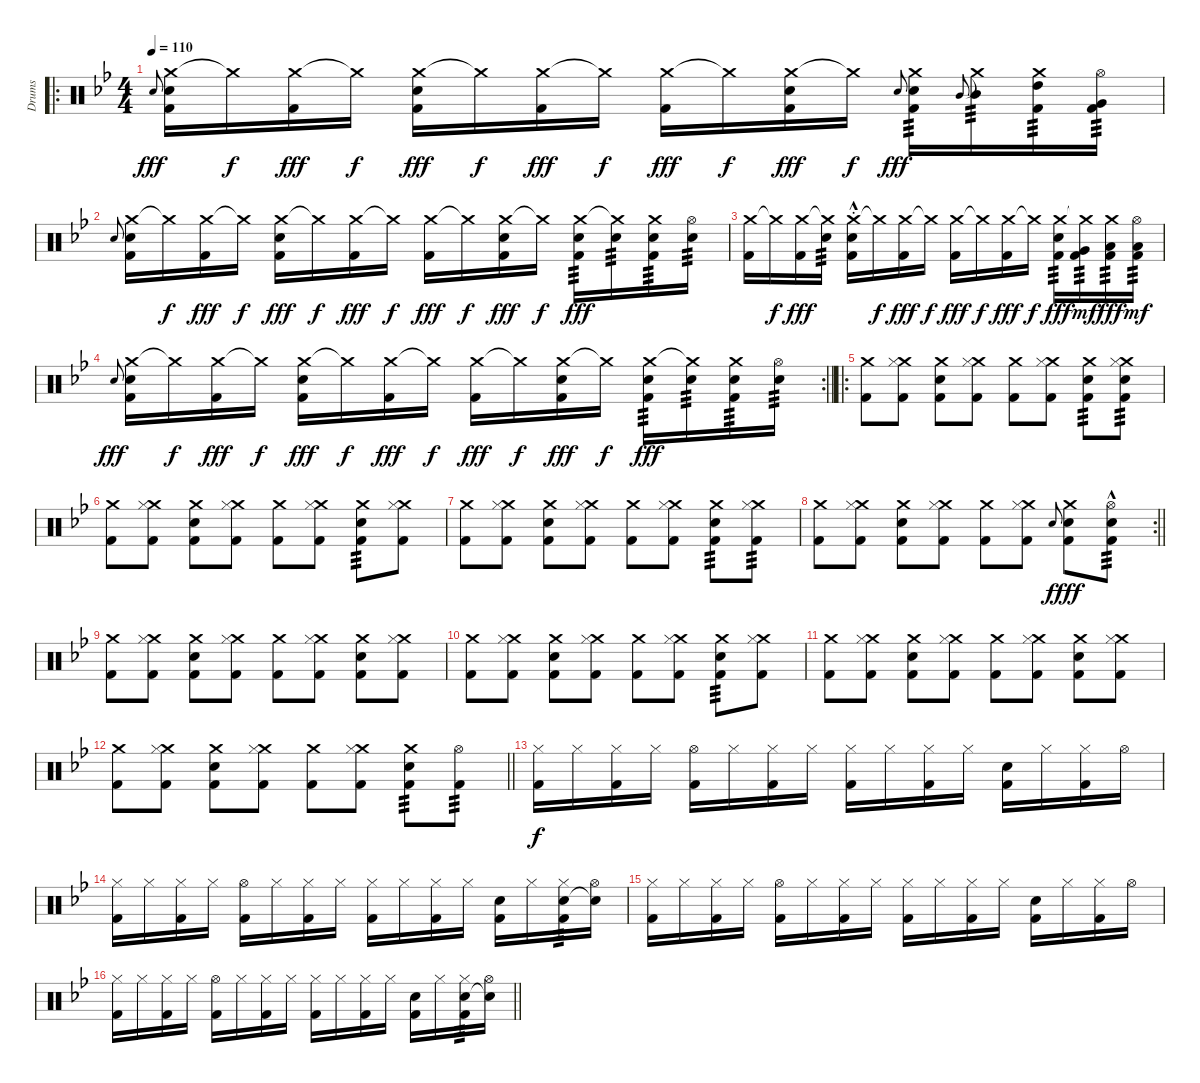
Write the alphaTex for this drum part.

\track ("Drums" "Drums") {instrument percussion}
\staff {score}
\articulation defaults
\ro
\ts (4 4)
\tempo 110
\clef neutral
\ks bb "Electric Snare (hit)"{h}.8{gr onbeat dy fff}
("Crash medium (hit)" "Electric Snare (hit)" "Kick (hit) 2").16 "Crash medium (hit)"{t}.16{dy f} ("Crash medium (hit)" "Kick (hit) 2").16{dy fff} "Crash medium (hit)"{t}.16{dy f} ("Crash medium (hit)" "Electric Snare (hit)" "Kick (hit) 2").16{dy fff} "Crash medium (hit)"{t}.16{dy f} ("Crash medium (hit)" "Kick (hit) 2").16{dy fff} "Crash medium (hit)"{t}.16{dy f} ("Crash medium (hit)" "Kick (hit) 2").16{dy fff} "Crash medium (hit)"{t}.16{dy f} ("Crash medium (hit)" "Electric Snare (hit)" "Kick (hit) 2").16{dy fff} "Crash medium (hit)"{t}.16{dy f} "Electric Snare (hit)"{h}.8{gr onbeat dy fff} ("Crash medium (hit)" "Electric Snare (hit)" "Kick (hit) 2").16{tp 3} "Mid Tom (hit)"{h}.8{gr onbeat} ("Crash medium (hit)"{t} "Mid Tom (hit)").16{tp 3} ("Crash medium (hit)" "High Tom (hit)" "Kick (hit) 2").16{tp 3} ("Hi-Hat (open)" "Very Low Tom (hit)" "Kick (hit) 2").16{tp 3} |
"Electric Snare (hit)"{h}.8{gr onbeat} ("Crash medium (hit)" "Electric Snare (hit)" "Kick (hit) 2").16 "Crash medium (hit)"{t}.16{dy f} ("Crash medium (hit)" "Kick (hit) 2").16{dy fff} "Crash medium (hit)"{t}.16{dy f} ("Crash medium (hit)" "Electric Snare (hit)" "Kick (hit) 2").16{dy fff} "Crash medium (hit)"{t}.16{dy f} ("Crash medium (hit)" "Kick (hit) 2").16{dy fff} "Crash medium (hit)"{t}.16{dy f} ("Crash medium (hit)" "Kick (hit) 2").16{dy fff} "Crash medium (hit)"{t}.16{dy f} ("Crash medium (hit)" "Electric Snare (hit)" "Kick (hit) 2").16{dy fff} "Crash medium (hit)"{t}.16{dy f} ("Crash medium (hit)" "Electric Snare (hit)" "Kick (hit) 2").16{tp 3 dy fff} ("Crash medium (hit)"{t} "Electric Snare (hit)").16{tp 3} ("Crash medium (hit)" "Electric Snare (hit)" "Kick (hit) 2").16{tp 3} ("Hi-Hat (open)" "Electric Snare (hit)").16{tp 3} |
("Crash medium (hit)" "Kick (hit) 2").16 "Crash medium (hit)"{t}.16{dy f} ("Crash medium (hit)" "Kick (hit) 2").16{dy fff} ("Crash medium (hit)"{t} "Electric Snare (hit)").16{tp 3} ("Crash medium (hit)" "Electric Snare (hit)"{hac st} "Kick (hit) 2").16 "Crash medium (hit)"{t}.16{dy f} ("Crash medium (hit)" "Kick (hit) 2").16{dy fff} "Crash medium (hit)"{t}.16{dy f} ("Crash medium (hit)" "Kick (hit) 2").16{dy fff} "Crash medium (hit)"{t}.16{dy f} ("Crash medium (hit)" "Kick (hit) 2").16{dy fff} "Crash medium (hit)"{t}.16{dy f} ("Crash medium (hit)" "Electric Snare (hit)" "Kick (hit) 2").16{tp 3 dy fff} ("Crash medium (hit)"{t} "Very Low Tom (hit)" "Kick (hit) 2").16{tp 3 dy mf} ("Crash medium (hit)" "Low Tom (hit)" "Kick (hit) 2").16{tp 3 dy fff} ("Hi-Hat (open)" "Low Floor Tom (hit)" "Kick (hit) 2").16{tp 3 dy mf} |
\rc 2
\barLineRight lightlight "Electric Snare (hit)"{h}.8{gr onbeat dy fff}
("Crash medium (hit)" "Electric Snare (hit)" "Kick (hit) 2").16 "Crash medium (hit)"{t}.16{dy f} ("Crash medium (hit)" "Kick (hit) 2").16{dy fff} "Crash medium (hit)"{t}.16{dy f} ("Crash medium (hit)" "Electric Snare (hit)" "Kick (hit) 2").16{dy fff} "Crash medium (hit)"{t}.16{dy f} ("Crash medium (hit)" "Kick (hit) 2").16{dy fff} "Crash medium (hit)"{t}.16{dy f} ("Crash medium (hit)" "Kick (hit) 2").16{dy fff} "Crash medium (hit)"{t}.16{dy f} ("Crash medium (hit)" "Electric Snare (hit)" "Kick (hit) 2").16{dy fff} "Crash medium (hit)"{t}.16{dy f} ("Crash medium (hit)" "Electric Snare (hit)" "Kick (hit) 2").16{tp 3 dy fff} ("Crash medium (hit)"{t} "Electric Snare (hit)").16{tp 3} ("Crash medium (hit)" "Electric Snare (hit)" "Kick (hit) 2").16{tp 3} ("Hi-Hat (open)" "Electric Snare (hit)").16{tp 3} |
\ro
("Crash medium (hit)" "Kick (hit) 2").8 ("Crash medium (hit)" "Hi-Hat (closed)" "Kick (hit) 2").8 ("Crash medium (hit)" "Electric Snare (hit)" "Kick (hit) 2").8 ("Crash medium (hit)" "Hi-Hat (closed)" "Kick (hit) 2").8 ("Crash medium (hit)" "Kick (hit) 2").8 ("Crash medium (hit)" "Hi-Hat (closed)" "Kick (hit) 2").8 ("Crash medium (hit)" "Electric Snare (hit)" "Kick (hit) 2").8{tp 3} ("Crash medium (hit)" "Hi-Hat (closed)" "Electric Snare (hit)" "Kick (hit) 2").8{tp 3} |
("Crash medium (hit)" "Kick (hit) 2").8 ("Crash medium (hit)" "Hi-Hat (closed)" "Kick (hit) 2").8 ("Crash medium (hit)" "Electric Snare (hit)" "Kick (hit) 2").8 ("Crash medium (hit)" "Hi-Hat (closed)" "Kick (hit) 2").8 ("Crash medium (hit)" "Kick (hit) 2").8 ("Crash medium (hit)" "Hi-Hat (closed)" "Kick (hit) 2").8 ("Crash medium (hit)" "Electric Snare (hit)" "Kick (hit) 2").8{tp 3} ("Crash medium (hit)" "Hi-Hat (closed)" "Kick (hit) 2").8 |
("Crash medium (hit)" "Kick (hit) 2").8 ("Crash medium (hit)" "Hi-Hat (closed)" "Kick (hit) 2").8 ("Crash medium (hit)" "Electric Snare (hit)" "Kick (hit) 2").8 ("Crash medium (hit)" "Hi-Hat (closed)" "Kick (hit) 2").8 ("Crash medium (hit)" "Kick (hit) 2").8 ("Crash medium (hit)" "Hi-Hat (closed)" "Kick (hit) 2").8 ("Crash medium (hit)" "Electric Snare (hit)" "Kick (hit) 2").8{tp 3} ("Crash medium (hit)" "Hi-Hat (closed)" "Kick (hit) 2").8{tp 3} |
\rc 2
\barLineRight lightlight
("Crash medium (hit)" "Kick (hit) 2").8 ("Crash medium (hit)" "Hi-Hat (closed)" "Kick (hit) 2").8 ("Crash medium (hit)" "Electric Snare (hit)" "Kick (hit) 2").8 ("Crash medium (hit)" "Hi-Hat (closed)" "Kick (hit) 2").8 ("Crash medium (hit)" "Kick (hit) 2").8 ("Crash medium (hit)" "Hi-Hat (closed)" "Kick (hit) 2").8 "Electric Snare (hit)"{h}.8{gr onbeat dy f} ("Crash medium (hit)" "Electric Snare (hit)" "Kick (hit) 2").8{dy fff} ("Hi-Hat (open)" "Electric Snare (hit)"{hac} "Kick (hit) 2").8{tp 3} |
("Crash medium (hit)" "Kick (hit) 2").8 ("Crash medium (hit)" "Hi-Hat (closed)" "Kick (hit) 2").8 ("Crash medium (hit)" "Electric Snare (hit)" "Kick (hit) 2").8 ("Crash medium (hit)" "Hi-Hat (closed)" "Kick (hit) 2").8 ("Crash medium (hit)" "Kick (hit) 2").8 ("Crash medium (hit)" "Hi-Hat (closed)" "Kick (hit) 2").8 ("Crash medium (hit)" "Electric Snare (hit)" "Kick (hit) 2").8 ("Crash medium (hit)" "Hi-Hat (closed)" "Kick (hit) 2").8 |
("Crash medium (hit)" "Kick (hit) 2").8 ("Crash medium (hit)" "Hi-Hat (closed)" "Kick (hit) 2").8 ("Crash medium (hit)" "Electric Snare (hit)" "Kick (hit) 2").8 ("Crash medium (hit)" "Hi-Hat (closed)" "Kick (hit) 2").8 ("Crash medium (hit)" "Kick (hit) 2").8 ("Crash medium (hit)" "Hi-Hat (closed)" "Kick (hit) 2").8 ("Crash medium (hit)" "Electric Snare (hit)" "Kick (hit) 2").8{tp 3} ("Crash medium (hit)" "Hi-Hat (closed)" "Kick (hit) 2").8 |
("Crash medium (hit)" "Kick (hit) 2").8 ("Crash medium (hit)" "Hi-Hat (closed)" "Kick (hit) 2").8 ("Crash medium (hit)" "Electric Snare (hit)" "Kick (hit) 2").8 ("Crash medium (hit)" "Hi-Hat (closed)" "Kick (hit) 2").8 ("Crash medium (hit)" "Kick (hit) 2").8 ("Crash medium (hit)" "Hi-Hat (closed)" "Kick (hit) 2").8 ("Crash medium (hit)" "Electric Snare (hit)" "Kick (hit) 2").8 ("Crash medium (hit)" "Hi-Hat (closed)" "Kick (hit) 2").8 |
\barLineRight lightlight
("Crash medium (hit)" "Kick (hit) 2").8 ("Crash medium (hit)" "Hi-Hat (closed)" "Kick (hit) 2").8 ("Crash medium (hit)" "Electric Snare (hit)" "Kick (hit) 2").8 ("Crash medium (hit)" "Hi-Hat (closed)" "Kick (hit) 2").8 ("Crash medium (hit)" "Kick (hit) 2").8 ("Crash medium (hit)" "Hi-Hat (closed)" "Kick (hit) 2").8 ("Crash medium (hit)" "Electric Snare (hit)" "Kick (hit) 2").8{tp 3} ("Hi-Hat (open)" "Kick (hit) 2").8{tp 3} |
("Hi-Hat (closed)" "Kick (hit) 2").16{dy f} "Hi-Hat (closed)".16 ("Hi-Hat (closed)" "Kick (hit) 2").16 "Hi-Hat (closed)".16 ("Hi-Hat (open)" "Kick (hit) 2").16 "Hi-Hat (closed)".16 ("Hi-Hat (closed)" "Kick (hit) 2").16 "Hi-Hat (closed)".16 ("Hi-Hat (closed)" "Kick (hit) 2").16 "Hi-Hat (closed)".16 ("Hi-Hat (closed)" "Kick (hit) 2").16 "Hi-Hat (closed)".16 ("Electric Snare (hit)" "Kick (hit) 2").16 "Hi-Hat (closed)".16 ("Hi-Hat (closed)" "Kick (hit) 2").16 "Hi-Hat (open)".16 |
("Hi-Hat (closed)" "Kick (hit) 2").16 "Hi-Hat (closed)".16 ("Hi-Hat (closed)" "Kick (hit) 2").16 "Hi-Hat (closed)".16 ("Hi-Hat (open)" "Kick (hit) 2").16 "Hi-Hat (closed)".16 ("Hi-Hat (closed)" "Kick (hit) 2").16 "Hi-Hat (closed)".16 ("Hi-Hat (closed)" "Kick (hit) 2").16 "Hi-Hat (closed)".16 ("Hi-Hat (closed)" "Kick (hit) 2").16 "Hi-Hat (closed)".16 ("Electric Snare (hit)" "Kick (hit) 2").16 "Hi-Hat (closed)".16 ("Hi-Hat (closed)" "Electric Snare (hit)" "Kick (hit) 2").16{tp 3} ("Hi-Hat (open)" "Electric Snare (hit)"{t}).16 |
("Hi-Hat (closed)" "Kick (hit) 2").16 "Hi-Hat (closed)".16 ("Hi-Hat (closed)" "Kick (hit) 2").16 "Hi-Hat (closed)".16 ("Hi-Hat (open)" "Kick (hit) 2").16 "Hi-Hat (closed)".16 ("Hi-Hat (closed)" "Kick (hit) 2").16 "Hi-Hat (closed)".16 ("Hi-Hat (closed)" "Kick (hit) 2").16 "Hi-Hat (closed)".16 ("Hi-Hat (closed)" "Kick (hit) 2").16 "Hi-Hat (closed)".16 ("Electric Snare (hit)" "Kick (hit) 2").16 "Hi-Hat (closed)".16 ("Hi-Hat (closed)" "Kick (hit) 2").16 "Hi-Hat (open)".16 |
\barLineRight lightlight
("Hi-Hat (closed)" "Kick (hit) 2").16 "Hi-Hat (closed)".16 ("Hi-Hat (closed)" "Kick (hit) 2").16 "Hi-Hat (closed)".16 ("Hi-Hat (open)" "Kick (hit) 2").16 "Hi-Hat (closed)".16 ("Hi-Hat (closed)" "Kick (hit) 2").16 "Hi-Hat (closed)".16 ("Hi-Hat (closed)" "Kick (hit) 2").16 "Hi-Hat (closed)".16 ("Hi-Hat (closed)" "Kick (hit) 2").16 "Hi-Hat (closed)".16 ("Electric Snare (hit)" "Kick (hit) 2").16 "Hi-Hat (closed)".16 ("Hi-Hat (closed)" "Electric Snare (hit)" "Kick (hit) 2").16{tp 3} ("Hi-Hat (open)" "Electric Snare (hit)"{t}).16
